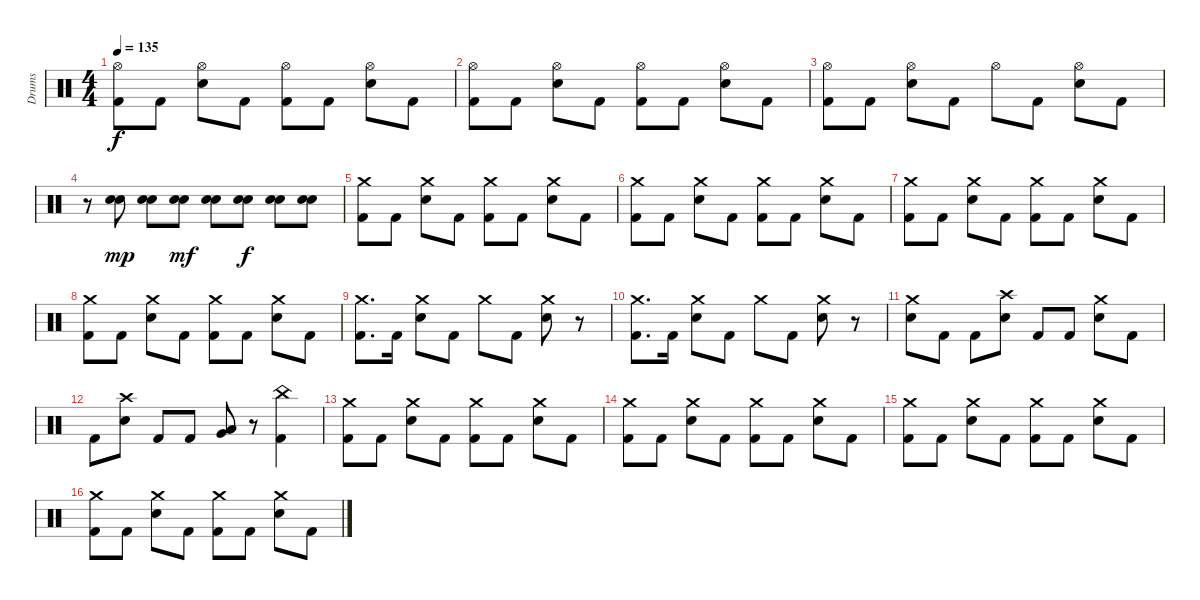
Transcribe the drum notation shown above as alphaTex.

\track ("Drums" "Drums") {instrument percussion}
\staff {score}
\articulation defaults
\ts (4 4)
\tempo 135
\clef neutral
\ks c
("Hi-Hat (open)" "Kick (hit) 2").8{dy f} "Kick (hit) 2".8 ("Hi-Hat (open)" "Snare (hit) 2").8 "Kick (hit) 2".8 ("Hi-Hat (open)" "Kick (hit) 2").8 "Kick (hit) 2".8 ("Hi-Hat (open)" "Snare (hit) 2").8 "Kick (hit) 2".8 |
("Hi-Hat (open)" "Kick (hit) 2").8 "Kick (hit) 2".8 ("Hi-Hat (open)" "Snare (hit) 2").8 "Kick (hit) 2".8 ("Hi-Hat (open)" "Kick (hit) 2").8 "Kick (hit) 2".8 ("Hi-Hat (open)" "Snare (hit) 2").8 "Kick (hit) 2".8 |
("Hi-Hat (open)" "Kick (hit) 2").8 "Kick (hit) 2".8 ("Hi-Hat (open)" "Snare (hit) 2").8 "Kick (hit) 2".8 "Hi-Hat (open)".8 "Kick (hit) 2".8 ("Hi-Hat (open)" "Snare (hit) 2").8 "Kick (hit) 2".8 |
r.8 ("Electric Snare (hit)" "Snare (hit) 2").8{dy mp} ("Electric Snare (hit)" "Snare (hit) 2").8 ("Electric Snare (hit)" "Snare (hit) 2").8{dy mf} ("Electric Snare (hit)" "Snare (hit) 2").8 ("Electric Snare (hit)" "Snare (hit) 2").8{dy f} ("Electric Snare (hit)" "Snare (hit) 2").8 ("Electric Snare (hit)" "Snare (hit) 2").8 |
("Crash medium (hit)" "Kick (hit) 2").8 "Kick (hit) 2".8 ("Crash medium (hit)" "Snare (hit) 2").8 "Kick (hit) 2".8 ("Crash medium (hit)" "Kick (hit) 2").8 "Kick (hit) 2".8 ("Crash medium (hit)" "Snare (hit) 2").8 "Kick (hit) 2".8 |
("Crash medium (hit)" "Kick (hit) 2").8 "Kick (hit) 2".8 ("Crash medium (hit)" "Snare (hit) 2").8 "Kick (hit) 2".8 ("Crash medium (hit)" "Kick (hit) 2").8 "Kick (hit) 2".8 ("Crash medium (hit)" "Snare (hit) 2").8 "Kick (hit) 2".8 |
("Crash medium (hit)" "Kick (hit) 2").8 "Kick (hit) 2".8 ("Crash medium (hit)" "Snare (hit) 2").8 "Kick (hit) 2".8 ("Crash medium (hit)" "Kick (hit) 2").8 "Kick (hit) 2".8 ("Crash medium (hit)" "Snare (hit) 2").8 "Kick (hit) 2".8 |
("Crash medium (hit)" "Kick (hit) 2").8 "Kick (hit) 2".8 ("Crash medium (hit)" "Snare (hit) 2").8 "Kick (hit) 2".8 ("Crash medium (hit)" "Kick (hit) 2").8 "Kick (hit) 2".8 ("Crash medium (hit)" "Snare (hit) 2").8 "Kick (hit) 2".8 |
("Crash medium (hit)" "Kick (hit) 2").8{d} "Kick (hit) 2".16 ("Crash medium (hit)" "Snare (hit) 2").8 "Kick (hit) 2".8 "Crash medium (hit)".8 "Kick (hit) 2".8 ("Crash medium (hit)" "Snare (hit) 2").8 r.8 |
("Crash medium (hit)" "Kick (hit) 2").8{d} "Kick (hit) 2".16 ("Crash medium (hit)" "Snare (hit) 2").8 "Kick (hit) 2".8 "Crash medium (hit)".8 "Kick (hit) 2".8 ("Crash medium (hit)" "Snare (hit) 2").8 r.8 |
("Crash medium (hit)" "Snare (hit) 2").8 "Kick (hit) 2".8 "Kick (hit) 2".8 ("Crash high (hit)" "Snare (hit) 2").8 "Kick (hit) 2".8 "Kick (hit) 2".8 ("Crash medium (hit)" "Snare (hit) 2").8 "Kick (hit) 2".8 |
"Kick (hit) 2".8 ("Crash high (hit)" "Snare (hit) 2").8 "Kick (hit) 2".8 "Kick (hit) 2".8 ("Very Low Tom (hit)" "Low Tom (hit)").8 r.8 ("China (hit)" "Kick (hit) 2").4 |
("Crash medium (hit)" "Kick (hit) 2").8 "Kick (hit) 2".8 ("Crash medium (hit)" "Snare (hit) 2").8 "Kick (hit) 2".8 ("Crash medium (hit)" "Kick (hit) 2").8 "Kick (hit) 2".8 ("Crash medium (hit)" "Snare (hit) 2").8 "Kick (hit) 2".8 |
("Crash medium (hit)" "Kick (hit) 2").8 "Kick (hit) 2".8 ("Crash medium (hit)" "Snare (hit) 2").8 "Kick (hit) 2".8 ("Crash medium (hit)" "Kick (hit) 2").8 "Kick (hit) 2".8 ("Crash medium (hit)" "Snare (hit) 2").8 "Kick (hit) 2".8 |
("Crash medium (hit)" "Kick (hit) 2").8 "Kick (hit) 2".8 ("Crash medium (hit)" "Snare (hit) 2").8 "Kick (hit) 2".8 ("Crash medium (hit)" "Kick (hit) 2").8 "Kick (hit) 2".8 ("Crash medium (hit)" "Snare (hit) 2").8 "Kick (hit) 2".8 |
("Crash medium (hit)" "Kick (hit) 2").8 "Kick (hit) 2".8 ("Crash medium (hit)" "Snare (hit) 2").8 "Kick (hit) 2".8 ("Crash medium (hit)" "Kick (hit) 2").8 "Kick (hit) 2".8 ("Crash medium (hit)" "Snare (hit) 2").8 "Kick (hit) 2".8
